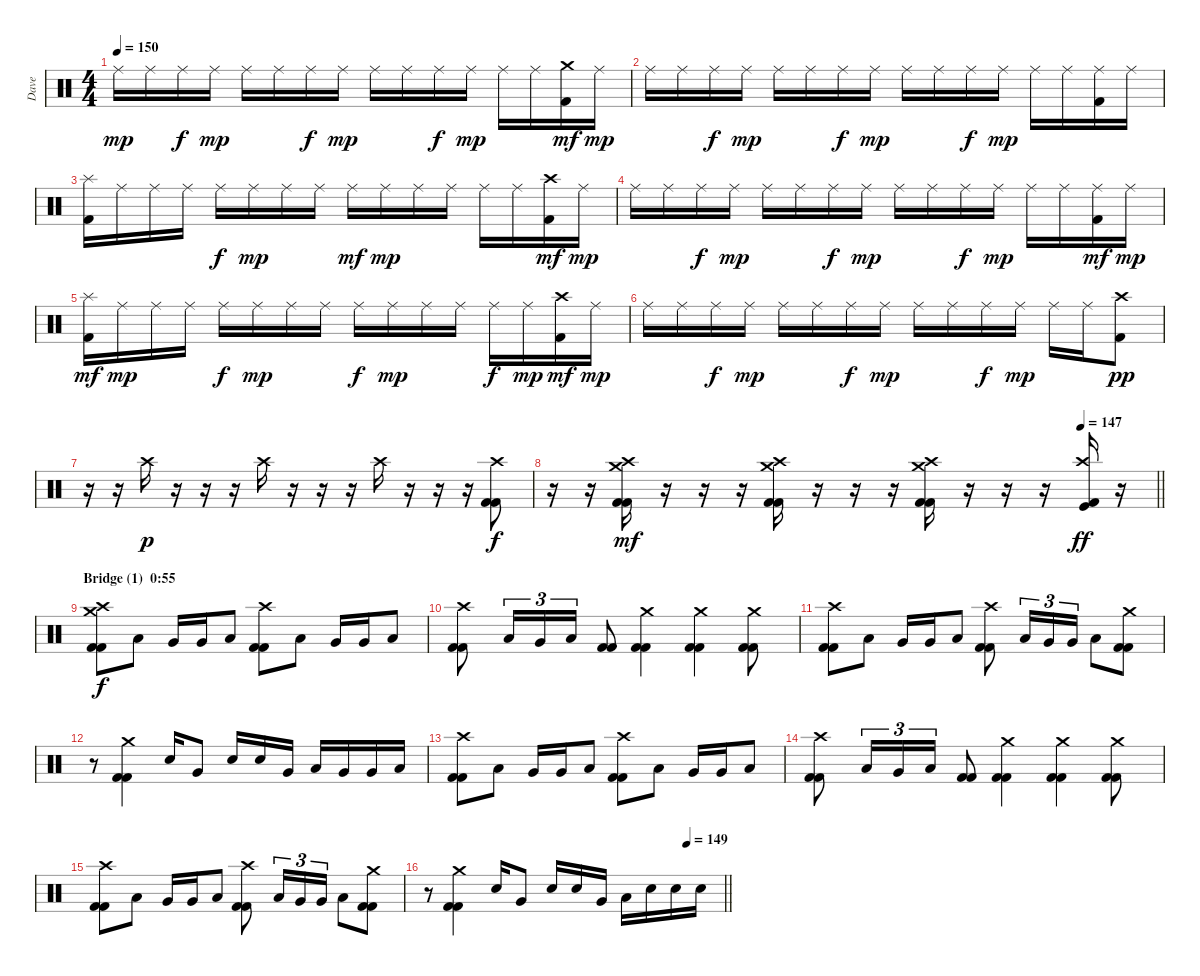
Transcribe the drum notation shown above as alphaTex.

\track ("Dave" "Dave") {instrument percussion}
\staff {score}
\articulation defaults
\ts (4 4)
\tempo 150
\clef neutral
\ks c "Ride (middle)".16{dy mp} "Ride (middle)".16 "Ride (middle)".16{dy f} "Ride (middle)".16{dy mp} "Ride (middle)".16 "Ride (middle)".16 "Ride (middle)".16{dy f} "Ride (middle)".16{dy mp} "Ride (middle)".16 "Ride (middle)".16 "Ride (middle)".16{dy f} "Ride (middle)".16{dy mp} "Ride (middle)".16 "Ride (middle)".16
("Crash medium (hit)" "Kick (hit) 2").16{dy mf} "Ride (middle)".16{dy mp} |
"Ride (middle)".16 "Ride (middle)".16 "Ride (middle)".16{dy f} "Ride (middle)".16{dy mp} "Ride (middle)".16 "Ride (middle)".16 "Ride (middle)".16{dy f} "Ride (middle)".16{dy mp} "Ride (middle)".16 "Ride (middle)".16 "Ride (middle)".16{dy f} "Ride (middle)".16{dy mp} "Ride (middle)".16 "Ride (middle)".16 ("Ride (middle)" "Kick (hit) 2").16 "Ride (middle)".16 |
("Splash (hit)" "Kick (hit) 2").16 "Ride (middle)".16 "Ride (middle)".16 "Ride (middle)".16 "Ride (middle)".16{dy f} "Ride (middle)".16{dy mp} "Ride (middle)".16 "Ride (middle)".16 "Ride (middle)".16{dy mf} "Ride (middle)".16{dy mp} "Ride (middle)".16 "Ride (middle)".16 "Ride (middle)".16 "Ride (middle)".16 ("Crash high (hit)" "Kick (hit) 2").16{dy mf} "Ride (middle)".16{dy mp} |
"Ride (middle)".16 "Ride (middle)".16 "Ride (middle)".16{dy f} "Ride (middle)".16{dy mp} "Ride (middle)".16 "Ride (middle)".16 "Ride (middle)".16{dy f} "Ride (middle)".16{dy mp} "Ride (middle)".16 "Ride (middle)".16 "Ride (middle)".16{dy f} "Ride (middle)".16{dy mp} "Ride (middle)".16 "Ride (middle)".16 ("Ride (middle)" "Kick (hit) 2").16{dy mf} "Ride (middle)".16{dy mp} |
("Splash (hit)" "Kick (hit) 2").16{dy mf} "Ride (middle)".16{dy mp} "Ride (middle)".16 "Ride (middle)".16 "Ride (middle)".16{dy f} "Ride (middle)".16{dy mp} "Ride (middle)".16 "Ride (middle)".16 "Ride (middle)".16{dy f} "Ride (middle)".16{dy mp} "Ride (middle)".16 "Ride (middle)".16 "Ride (middle)".16{dy f} "Ride (middle)".16{dy mp} ("Crash high (hit)" "Kick (hit) 2").16{dy mf} "Ride (middle)".16{dy mp} |
"Ride (middle)".16 "Ride (middle)".16 "Ride (middle)".16{dy f} "Ride (middle)".16{dy mp} "Ride (middle)".16 "Ride (middle)".16 "Ride (middle)".16{dy f} "Ride (middle)".16{dy mp} "Ride (middle)".16 "Ride (middle)".16 "Ride (middle)".16{dy f} "Ride (middle)".16{dy mp} "Ride (middle)".16 "Ride (middle)".16 ("Crash high (hit)" "Kick (hit) 2").8{dy pp} |
r.16 r.16 "Crash high (hit)".16{dy p} r.16 r.16 r.16 "Crash high (hit)".16 r.16 r.16 r.16 "Crash high (hit)".16 r.16 r.16 r.16 ("Crash high (hit)" "Kick (hit) 2" "Kick (hit) 2").8{dy f} |
\tempo (147 0.875)
\barLineRight lightlight
r.16 r.16 ("Crash medium (hit)" "Crash high (hit)" "Kick (hit) 2" "Kick (hit) 2").16{dy mf} r.16 r.16 r.16 ("Crash medium (hit)" "Crash high (hit)" "Kick (hit) 2" "Kick (hit) 2").16 r.16 r.16 r.16 ("Crash medium (hit)" "Crash high (hit)" "Kick (hit) 2" "Kick (hit) 2").16 r.16 r.16 r.16 ("Crash high (hit)" "Kick (hit)" "Kick (hit) 2").16{dy ff} r.16 |
\section ("" "Bridge (1)  0:55")
("Crash high (hit)" "Crash medium (hit)" "Kick (hit) 2" "Kick (hit) 2").8{dy f volume 16} "Low Floor Tom (hit)".8 "Very Low Tom (hit)".16 "Very Low Tom (hit)".16 "Low Floor Tom (hit)".8 ("Crash high (hit)" "Kick (hit) 2" "Kick (hit) 2").8 "Low Floor Tom (hit)".8 "Very Low Tom (hit)".16 "Very Low Tom (hit)".16 "Low Floor Tom (hit)".8 |
("Crash high (hit)" "Kick (hit) 2" "Kick (hit) 2").8 "Low Floor Tom (hit)".16{tu (3 2)} "Very Low Tom (hit)".16{tu (3 2)} "Low Floor Tom (hit)".16{tu (3 2)} ("Kick (hit) 2" "Kick (hit) 2").8 ("Crash medium (hit)" "Kick (hit) 2" "Kick (hit) 2").4 ("Crash medium (hit)" "Kick (hit) 2" "Kick (hit) 2").4 ("Crash medium (hit)" "Kick (hit) 2" "Kick (hit) 2").8 |
("Crash high (hit)" "Kick (hit) 2" "Kick (hit) 2").8 "Low Floor Tom (hit)".8 "Very Low Tom (hit)".16 "Very Low Tom (hit)".16 "Low Floor Tom (hit)".8 ("Crash high (hit)" "Kick (hit) 2" "Kick (hit) 2").8 "Low Floor Tom (hit)".16{tu (3 2)} "Very Low Tom (hit)".16{tu (3 2)} "Very Low Tom (hit)".16{tu (3 2)} "Low Floor Tom (hit)".8 ("Crash medium (hit)" "Kick (hit) 2" "Kick (hit) 2").8 |
r.8 ("Crash medium (hit)" "Kick (hit) 2" "Kick (hit) 2").4 "Electric Snare (hit)".16 "Very Low Tom (hit)".8 "Electric Snare (hit)".16 "Electric Snare (hit)".16 "Very Low Tom (hit)".16 "Low Tom (hit)".16 "Very Low Tom (hit)".16 "Very Low Tom (hit)".16 "Low Floor Tom (hit)".16 |
("Crash high (hit)" "Kick (hit) 2" "Kick (hit) 2").8 "Low Floor Tom (hit)".8 "Very Low Tom (hit)".16 "Very Low Tom (hit)".16 "Low Floor Tom (hit)".8 ("Crash high (hit)" "Kick (hit) 2" "Kick (hit) 2").8 "Low Floor Tom (hit)".8 "Very Low Tom (hit)".16 "Very Low Tom (hit)".16 "Low Floor Tom (hit)".8 |
("Crash high (hit)" "Kick (hit) 2" "Kick (hit) 2").8 "Low Floor Tom (hit)".16{tu (3 2)} "Very Low Tom (hit)".16{tu (3 2)} "Low Floor Tom (hit)".16{tu (3 2)} ("Kick (hit) 2" "Kick (hit) 2").8 ("Crash medium (hit)" "Kick (hit) 2" "Kick (hit) 2").4 ("Crash medium (hit)" "Kick (hit) 2" "Kick (hit) 2").4 ("Crash medium (hit)" "Kick (hit) 2" "Kick (hit) 2").8 |
("Crash high (hit)" "Kick (hit) 2" "Kick (hit) 2").8 "Low Floor Tom (hit)".8 "Very Low Tom (hit)".16 "Very Low Tom (hit)".16 "Low Floor Tom (hit)".8 ("Crash high (hit)" "Kick (hit) 2" "Kick (hit) 2").8 "Low Floor Tom (hit)".16{tu (3 2)} "Very Low Tom (hit)".16{tu (3 2)} "Very Low Tom (hit)".16{tu (3 2)} "Low Floor Tom (hit)".8 ("Crash medium (hit)" "Kick (hit) 2" "Kick (hit) 2").8 |
\tempo (149 0.875)
\barLineRight lightlight
r.8 ("Crash medium (hit)" "Kick (hit) 2" "Kick (hit) 2").4 "Electric Snare (hit)".16 "Very Low Tom (hit)".8 "Electric Snare (hit)".16 "Electric Snare (hit)".16 "Very Low Tom (hit)".16 "Low Tom (hit)".16 "Electric Snare (hit)".16 "Electric Snare (hit)".16 "Electric Snare (hit)".16
